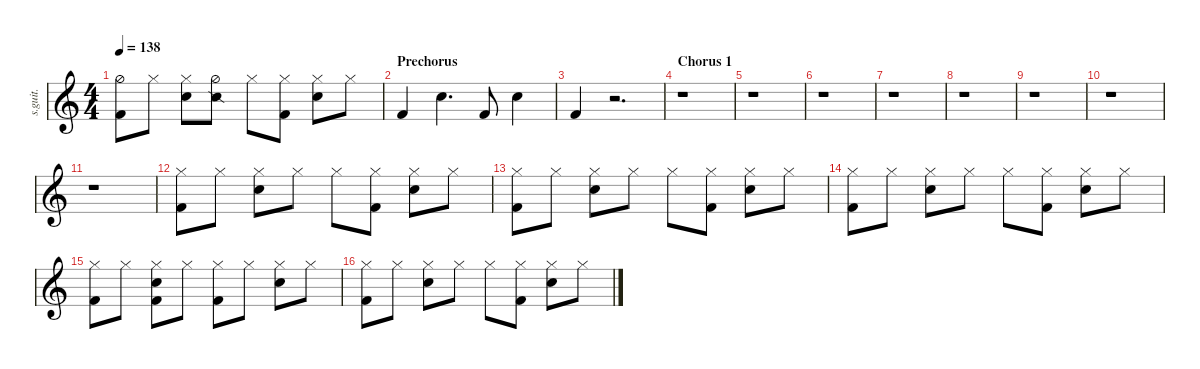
\defaultSystemsLayout 4
\hideDynamics
\bracketExtendMode nobrackets
\track ("Russel Hobbs | Drums" "s.guit.") {instrument percussion}
\staff {score}
\articulation defaults
\ts (4 4)
\tempo 138
\clef g2
\ks c
("Hi-Hat (half)" "Kick (hit) 2").8{dy f} "Hi-Hat (closed)".8 ("Hi-Hat (closed)" "Snare (hit) 2").8 ("Hi-Hat (half)" "Snare (side stick) 2").8 "Hi-Hat (closed)".8 ("Hi-Hat (closed)" "Kick (hit) 2").8 ("Hi-Hat (closed)" "Snare (hit) 2").8 "Hi-Hat (closed)".8 |
\section ("" "Prechorus")
"Kick (hit) 2".4{dy fff} "Snare (hit) 2".4{d dy ff} "Kick (hit) 2".8{dy fff} "Snare (hit) 2".4{dy ff} |
"Kick (hit) 2".4{dy fff} r.2{d} |
\section ("" "Chorus 1")
r.1 |
r.1 |
r.1 |
r.1 |
r.1 |
r.1 |
r.1 |
r.1 |
("Hi-Hat (closed)" "Kick (hit) 2").8{dy f} "Hi-Hat (closed)".8 ("Hi-Hat (closed)" "Snare (hit) 2").8 "Hi-Hat (closed)".8 "Hi-Hat (closed)".8 ("Hi-Hat (closed)" "Kick (hit) 2").8 ("Hi-Hat (closed)" "Snare (hit) 2").8 "Hi-Hat (closed)".8 |
("Hi-Hat (closed)" "Kick (hit) 2").8 "Hi-Hat (closed)".8 ("Hi-Hat (closed)" "Snare (hit) 2").8 "Hi-Hat (closed)".8 "Hi-Hat (closed)".8 ("Hi-Hat (closed)" "Kick (hit) 2").8 ("Hi-Hat (closed)" "Snare (hit) 2").8 "Hi-Hat (closed)".8 |
("Hi-Hat (closed)" "Kick (hit) 2").8 "Hi-Hat (closed)".8 ("Hi-Hat (closed)" "Snare (hit) 2").8 "Hi-Hat (closed)".8 "Hi-Hat (closed)".8 ("Hi-Hat (closed)" "Kick (hit) 2").8 ("Hi-Hat (closed)" "Snare (hit) 2").8 "Hi-Hat (closed)".8 |
("Hi-Hat (closed)" "Kick (hit) 2").8 "Hi-Hat (closed)".8 ("Hi-Hat (closed)" "Snare (hit) 2" "Kick (hit) 2").8 "Hi-Hat (closed)".8 ("Hi-Hat (closed)" "Kick (hit) 2").8 "Hi-Hat (closed)".8 ("Hi-Hat (closed)" "Snare (hit) 2").8 "Hi-Hat (closed)".8 |
("Hi-Hat (closed)" "Kick (hit) 2").8 "Hi-Hat (closed)".8 ("Hi-Hat (closed)" "Snare (hit) 2").8 "Hi-Hat (closed)".8 "Hi-Hat (closed)".8 ("Hi-Hat (closed)" "Kick (hit) 2").8 ("Hi-Hat (closed)" "Snare (hit) 2").8 "Hi-Hat (closed)".8
